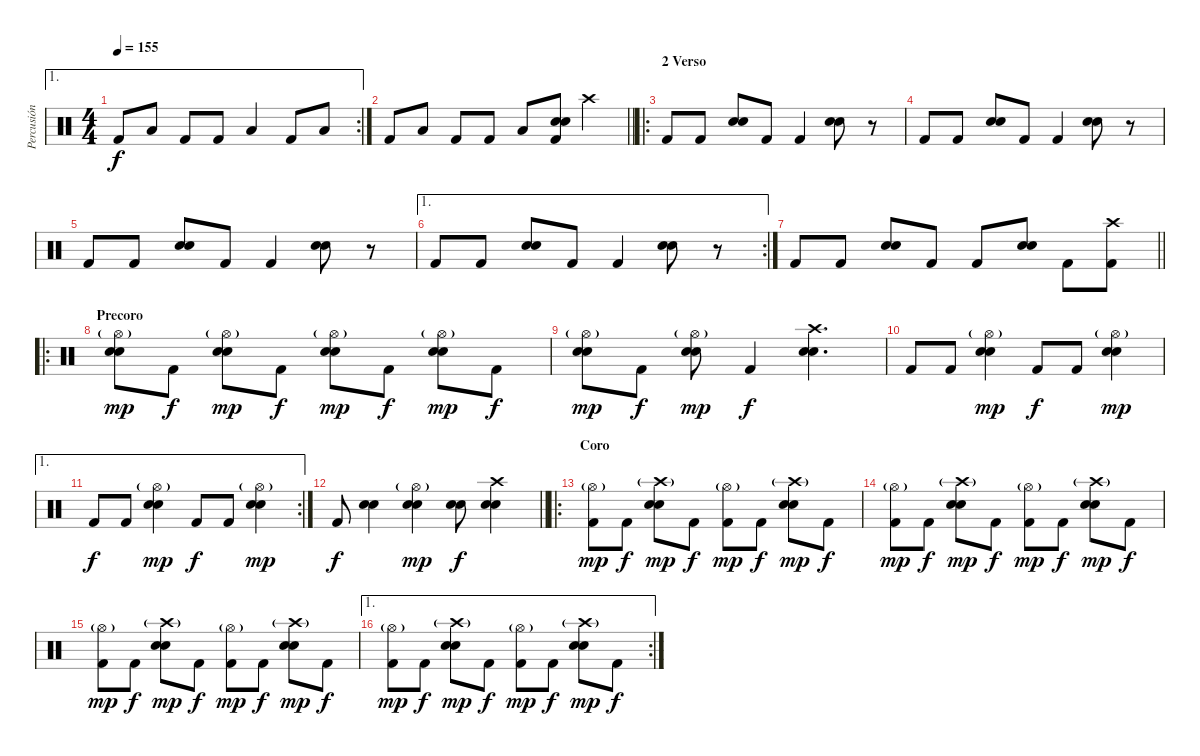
\track ("Percusión" "Percusión") {instrument percussion}
\staff {score}
\articulation defaults
\ae 1
\rc 2
\ts (4 4)
\tempo 155
\clef neutral
\ks c "Kick (hit) 2".8{dy f} "Low Floor Tom (hit)".8 "Kick (hit) 2".8 "Kick (hit) 2".8 "Low Floor Tom (hit)".4 "Kick (hit) 2".8 "Low Floor Tom (hit)".8
|
\barLineRight lightlight "Kick (hit) 2".8 "Low Floor Tom (hit)".8 "Kick (hit) 2".8 "Kick (hit) 2".8 "Low Floor Tom (hit)".8
("Kick (hit) 2" "Electric Snare (hit)" "Snare (hit) 2").8 "Crash high (hit)".4 |
\ro
\section ("" "2 Verso")
"Kick (hit) 2".8 "Kick (hit) 2".8 ("Electric Snare (hit)" "Snare (hit) 2").8 "Kick (hit) 2".8 "Kick (hit) 2".4 ("Electric Snare (hit)" "Snare (hit) 2").8 r.8 |
"Kick (hit) 2".8 "Kick (hit) 2".8 ("Electric Snare (hit)" "Snare (hit) 2").8 "Kick (hit) 2".8 "Kick (hit) 2".4 ("Electric Snare (hit)" "Snare (hit) 2").8 r.8 |
"Kick (hit) 2".8 "Kick (hit) 2".8 ("Electric Snare (hit)" "Snare (hit) 2").8 "Kick (hit) 2".8 "Kick (hit) 2".4 ("Electric Snare (hit)" "Snare (hit) 2").8 r.8 |
\ae 1
\rc 2 "Kick (hit) 2".8 "Kick (hit) 2".8
("Electric Snare (hit)" "Snare (hit) 2").8 "Kick (hit) 2".8 "Kick (hit) 2".4 ("Electric Snare (hit)" "Snare (hit) 2").8 r.8 |
\barLineRight lightlight "Kick (hit) 2".8 "Kick (hit) 2".8
("Electric Snare (hit)" "Snare (hit) 2").8 "Kick (hit) 2".8 "Kick (hit) 2".8 ("Electric Snare (hit)" "Snare (hit) 2").8 "Kick (hit) 2".8 ("Kick (hit) 2" "Crash high (hit)").8 |
\ro
\section ("" "Precoro")
("Hi-Hat (open)"{g} "Snare (hit) 2" "Electric Snare (hit)").8{dy mp} "Kick (hit) 2".8{dy f} ("Hi-Hat (open)"{g} "Snare (hit) 2" "Electric Snare (hit)").8{dy mp} "Kick (hit) 2".8{dy f} ("Hi-Hat (open)"{g} "Snare (hit) 2" "Electric Snare (hit)").8{dy mp} "Kick (hit) 2".8{dy f} ("Hi-Hat (open)"{g} "Snare (hit) 2" "Electric Snare (hit)").8{dy mp} "Kick (hit) 2".8{dy f} |
("Hi-Hat (open)"{g} "Snare (hit) 2" "Electric Snare (hit)").8{dy mp} "Kick (hit) 2".8{dy f} ("Hi-Hat (open)"{g} "Snare (hit) 2" "Electric Snare (hit)").8{dy mp} "Kick (hit) 2".4{dy f} ("Crash high (hit)" "Snare (hit) 2" "Electric Snare (hit)").4{d} |
"Kick (hit) 2".8 "Kick (hit) 2".8 ("Hi-Hat (open)"{g} "Snare (hit) 2" "Electric Snare (hit)").4{dy mp} "Kick (hit) 2".8{dy f} "Kick (hit) 2".8 ("Hi-Hat (open)"{g} "Snare (hit) 2" "Electric Snare (hit)").4{dy mp} |
\ae 1
\rc 2 "Kick (hit) 2".8{dy f} "Kick (hit) 2".8
("Hi-Hat (open)"{g} "Snare (hit) 2" "Electric Snare (hit)").4{dy mp} "Kick (hit) 2".8{dy f} "Kick (hit) 2".8 ("Hi-Hat (open)"{g} "Snare (hit) 2" "Electric Snare (hit)").4{dy mp} |
\barLineRight lightlight "Kick (hit) 2".8{dy f}
("Snare (hit) 2" "Electric Snare (hit)").4 ("Hi-Hat (open)"{g} "Snare (hit) 2" "Electric Snare (hit)").4{dy mp} ("Snare (hit) 2" "Electric Snare (hit)").8{dy f} ("Crash high (hit)" "Snare (hit) 2" "Electric Snare (hit)").4 |
\ro
\section ("" "Coro")
("Hi-Hat (open)"{g} "Kick (hit) 2").8{dy mp} "Kick (hit) 2".8{dy f} ("Crash high (hit)"{g} "Snare (hit) 2" "Electric Snare (hit)").8{dy mp} "Kick (hit) 2".8{dy f} ("Hi-Hat (open)"{g} "Kick (hit) 2").8{dy mp} "Kick (hit) 2".8{dy f} ("Crash high (hit)"{g} "Snare (hit) 2" "Electric Snare (hit)").8{dy mp} "Kick (hit) 2".8{dy f} |
("Hi-Hat (open)"{g} "Kick (hit) 2").8{dy mp} "Kick (hit) 2".8{dy f} ("Crash high (hit)"{g} "Snare (hit) 2" "Electric Snare (hit)").8{dy mp} "Kick (hit) 2".8{dy f} ("Hi-Hat (open)"{g} "Kick (hit) 2").8{dy mp} "Kick (hit) 2".8{dy f} ("Crash high (hit)"{g} "Snare (hit) 2" "Electric Snare (hit)").8{dy mp} "Kick (hit) 2".8{dy f} |
("Hi-Hat (open)"{g} "Kick (hit) 2").8{dy mp} "Kick (hit) 2".8{dy f} ("Crash high (hit)"{g} "Snare (hit) 2" "Electric Snare (hit)").8{dy mp} "Kick (hit) 2".8{dy f} ("Hi-Hat (open)"{g} "Kick (hit) 2").8{dy mp} "Kick (hit) 2".8{dy f} ("Crash high (hit)"{g} "Snare (hit) 2" "Electric Snare (hit)").8{dy mp} "Kick (hit) 2".8{dy f} |
\ae 1
\rc 2
("Hi-Hat (open)"{g} "Kick (hit) 2").8{dy mp} "Kick (hit) 2".8{dy f} ("Crash high (hit)"{g} "Snare (hit) 2" "Electric Snare (hit)").8{dy mp} "Kick (hit) 2".8{dy f} ("Hi-Hat (open)"{g} "Kick (hit) 2").8{dy mp} "Kick (hit) 2".8{dy f} ("Crash high (hit)"{g} "Snare (hit) 2" "Electric Snare (hit)").8{dy mp} "Kick (hit) 2".8{dy f}
